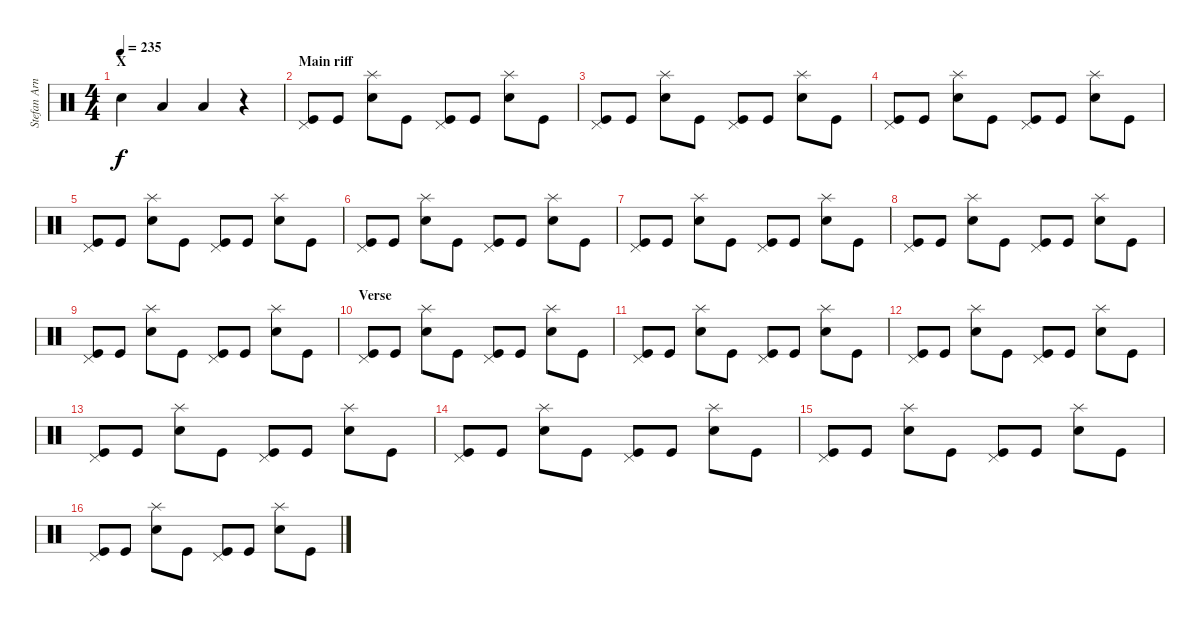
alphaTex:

\track ("Stefan Arnold" "Stefan Arn") {instrument percussion}
\staff {score}
\articulation defaults
\ts (4 4)
\section ("" "X")
\tempo 235
\clef neutral
\ks c "Electric Snare (hit)".4{dy f} "Low Tom (hit)".4 "Low Floor Tom (hit)".4
r.4 |
\section ("" "Main riff")
("Kick (hit)" "Pedal Hi-Hat (hit)").8 "Kick (hit)".8 ("Electric Snare (hit)" "Splash (hit)").8 "Kick (hit)".8 ("Kick (hit)" "Pedal Hi-Hat (hit)").8 "Kick (hit)".8 ("Electric Snare (hit)" "Splash (hit)").8 "Kick (hit)".8 |
("Kick (hit)" "Pedal Hi-Hat (hit)").8 "Kick (hit)".8 ("Electric Snare (hit)" "Splash (hit)").8 "Kick (hit)".8 ("Kick (hit)" "Pedal Hi-Hat (hit)").8 "Kick (hit)".8 ("Electric Snare (hit)" "Splash (hit)").8 "Kick (hit)".8 |
("Kick (hit)" "Pedal Hi-Hat (hit)").8 "Kick (hit)".8 ("Electric Snare (hit)" "Splash (hit)").8 "Kick (hit)".8 ("Kick (hit)" "Pedal Hi-Hat (hit)").8 "Kick (hit)".8 ("Electric Snare (hit)" "Splash (hit)").8 "Kick (hit)".8 |
("Kick (hit)" "Pedal Hi-Hat (hit)").8 "Kick (hit)".8 ("Electric Snare (hit)" "Splash (hit)").8 "Kick (hit)".8 ("Kick (hit)" "Pedal Hi-Hat (hit)").8 "Kick (hit)".8 ("Electric Snare (hit)" "Splash (hit)").8 "Kick (hit)".8 |
("Kick (hit)" "Pedal Hi-Hat (hit)").8 "Kick (hit)".8 ("Electric Snare (hit)" "Splash (hit)").8 "Kick (hit)".8 ("Kick (hit)" "Pedal Hi-Hat (hit)").8 "Kick (hit)".8 ("Electric Snare (hit)" "Splash (hit)").8 "Kick (hit)".8 |
("Kick (hit)" "Pedal Hi-Hat (hit)").8 "Kick (hit)".8 ("Electric Snare (hit)" "Splash (hit)").8 "Kick (hit)".8 ("Kick (hit)" "Pedal Hi-Hat (hit)").8 "Kick (hit)".8 ("Electric Snare (hit)" "Splash (hit)").8 "Kick (hit)".8 |
("Kick (hit)" "Pedal Hi-Hat (hit)").8 "Kick (hit)".8 ("Electric Snare (hit)" "Splash (hit)").8 "Kick (hit)".8 ("Kick (hit)" "Pedal Hi-Hat (hit)").8 "Kick (hit)".8 ("Electric Snare (hit)" "Splash (hit)").8 "Kick (hit)".8 |
("Kick (hit)" "Pedal Hi-Hat (hit)").8 "Kick (hit)".8 ("Electric Snare (hit)" "Splash (hit)").8 "Kick (hit)".8 ("Kick (hit)" "Pedal Hi-Hat (hit)").8 "Kick (hit)".8 ("Electric Snare (hit)" "Splash (hit)").8 "Kick (hit)".8 |
\section ("" "Verse")
("Kick (hit)" "Pedal Hi-Hat (hit)").8 "Kick (hit)".8 ("Electric Snare (hit)" "Splash (hit)").8 "Kick (hit)".8 ("Kick (hit)" "Pedal Hi-Hat (hit)").8 "Kick (hit)".8 ("Electric Snare (hit)" "Splash (hit)").8 "Kick (hit)".8 |
("Kick (hit)" "Pedal Hi-Hat (hit)").8 "Kick (hit)".8 ("Electric Snare (hit)" "Splash (hit)").8 "Kick (hit)".8 ("Kick (hit)" "Pedal Hi-Hat (hit)").8 "Kick (hit)".8 ("Electric Snare (hit)" "Splash (hit)").8 "Kick (hit)".8 |
("Kick (hit)" "Pedal Hi-Hat (hit)").8 "Kick (hit)".8 ("Electric Snare (hit)" "Splash (hit)").8 "Kick (hit)".8 ("Kick (hit)" "Pedal Hi-Hat (hit)").8 "Kick (hit)".8 ("Electric Snare (hit)" "Splash (hit)").8 "Kick (hit)".8 |
("Kick (hit)" "Pedal Hi-Hat (hit)").8 "Kick (hit)".8 ("Electric Snare (hit)" "Splash (hit)").8 "Kick (hit)".8 ("Kick (hit)" "Pedal Hi-Hat (hit)").8 "Kick (hit)".8 ("Electric Snare (hit)" "Splash (hit)").8 "Kick (hit)".8 |
("Kick (hit)" "Pedal Hi-Hat (hit)").8 "Kick (hit)".8 ("Electric Snare (hit)" "Splash (hit)").8 "Kick (hit)".8 ("Kick (hit)" "Pedal Hi-Hat (hit)").8 "Kick (hit)".8 ("Electric Snare (hit)" "Splash (hit)").8 "Kick (hit)".8 |
("Kick (hit)" "Pedal Hi-Hat (hit)").8 "Kick (hit)".8 ("Electric Snare (hit)" "Splash (hit)").8 "Kick (hit)".8 ("Kick (hit)" "Pedal Hi-Hat (hit)").8 "Kick (hit)".8 ("Electric Snare (hit)" "Splash (hit)").8 "Kick (hit)".8 |
("Kick (hit)" "Pedal Hi-Hat (hit)").8 "Kick (hit)".8 ("Electric Snare (hit)" "Splash (hit)").8 "Kick (hit)".8 ("Kick (hit)" "Pedal Hi-Hat (hit)").8 "Kick (hit)".8 ("Electric Snare (hit)" "Splash (hit)").8 "Kick (hit)".8
